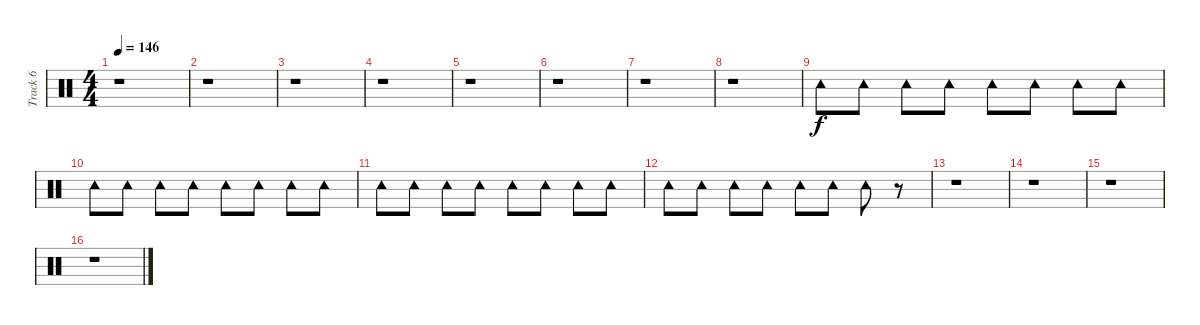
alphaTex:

\track ("Track 6" "Track 6") {instrument percussion}
\staff {score}
\articulation defaults
\ts (4 4)
\tempo 146
\clef neutral
\ks c
r.1{dy f} |
r.1 |
r.1 |
r.1 |
r.1 |
r.1 |
r.1 |
r.1 |
"Tambourine (hit)".8 "Tambourine (hit)".8 "Tambourine (hit)".8 "Tambourine (hit)".8 "Tambourine (hit)".8 "Tambourine (hit)".8 "Tambourine (hit)".8 "Tambourine (hit)".8 |
"Tambourine (hit)".8 "Tambourine (hit)".8 "Tambourine (hit)".8 "Tambourine (hit)".8 "Tambourine (hit)".8 "Tambourine (hit)".8 "Tambourine (hit)".8 "Tambourine (hit)".8 |
"Tambourine (hit)".8 "Tambourine (hit)".8 "Tambourine (hit)".8 "Tambourine (hit)".8 "Tambourine (hit)".8 "Tambourine (hit)".8 "Tambourine (hit)".8 "Tambourine (hit)".8 |
"Tambourine (hit)".8 "Tambourine (hit)".8 "Tambourine (hit)".8 "Tambourine (hit)".8 "Tambourine (hit)".8 "Tambourine (hit)".8 "Tambourine (hit)".8 r.8 |
r.1 |
r.1 |
r.1 |
r.1
